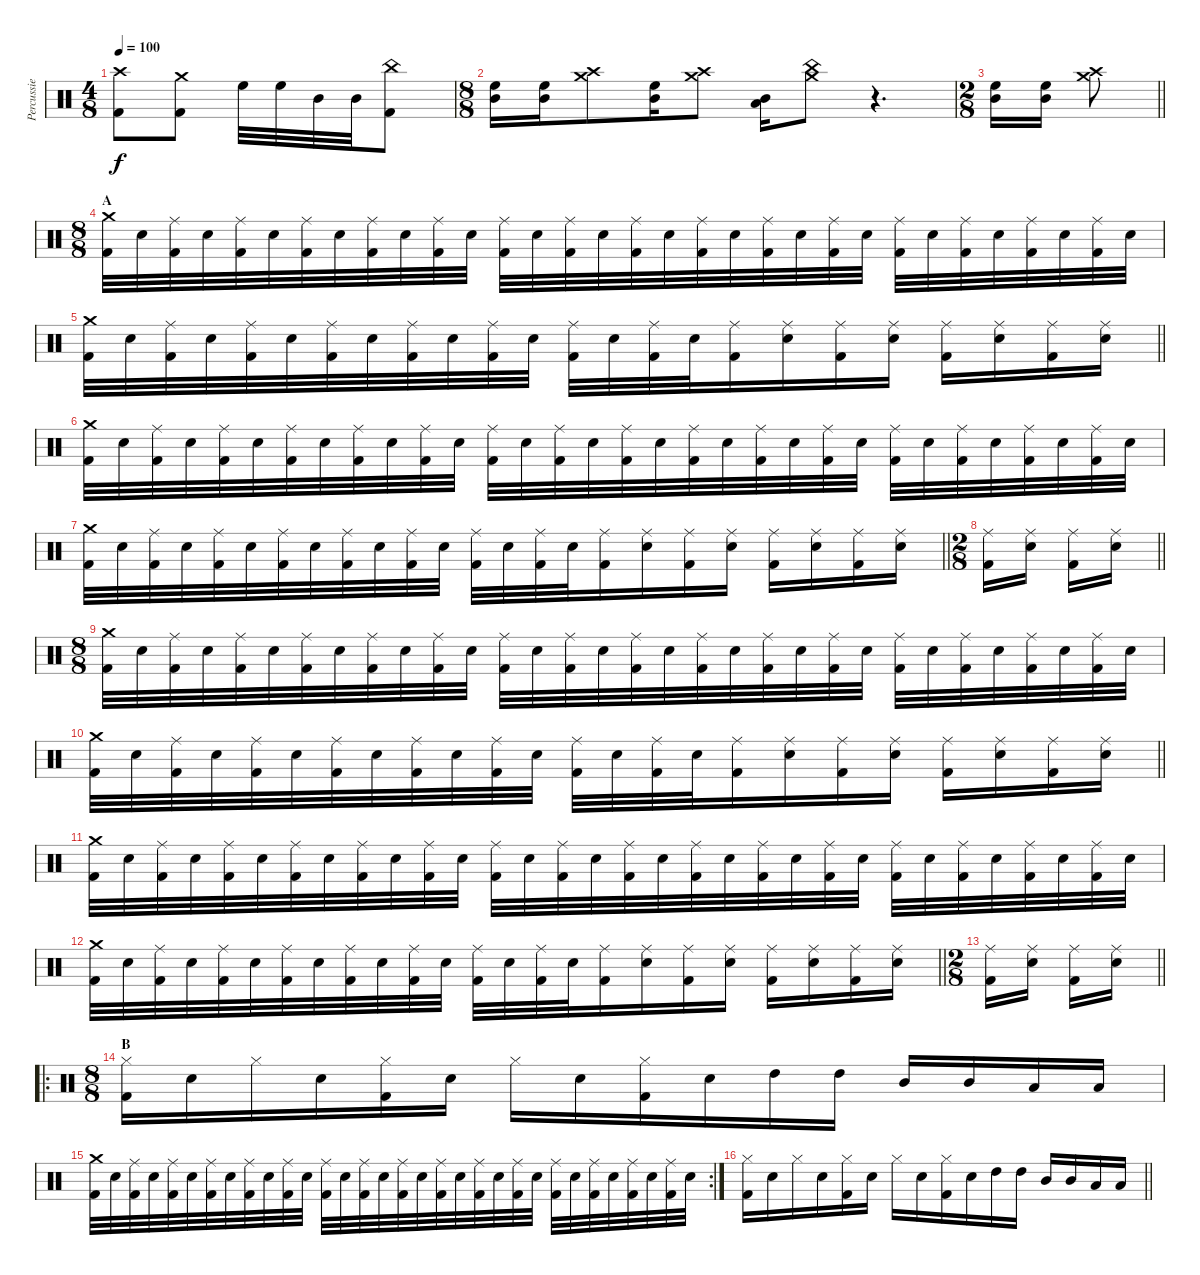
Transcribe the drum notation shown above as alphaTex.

\track ("Percussie" "Percussie") {instrument percussion}
\staff {score}
\articulation defaults
\ts (4 8)
\tempo 100
\clef neutral
\ks c
("Crash high (hit)" "Kick (hit) 2").8{dy f} ("Crash medium (hit)" "Kick (hit) 2").8 "High Floor Tom (hit)".32 "High Floor Tom (hit)".32 "Mid Tom (hit)".32 "Mid Tom (hit)".32 ("China (hit)" "Kick (hit) 2").8 |
\ts (8 8)
("Mid Tom (hit)" "High Floor Tom (hit)").16 ("Mid Tom (hit)" "High Floor Tom (hit)").16 ("Crash medium (hit)" "Crash high (hit)").8 ("Mid Tom (hit)" "High Floor Tom (hit)").16 ("Crash medium (hit)" "Crash high (hit)").8 ("Low Tom (hit)" "Mid Tom (hit)").16 ("Crash medium (hit)" "China (hit)").8 r.4{d} |
\ts (2 8)
\barLineRight lightlight
("Mid Tom (hit)" "High Floor Tom (hit)").16 ("Mid Tom (hit)" "High Floor Tom (hit)").16 ("Crash medium (hit)" "Crash high (hit)").8 |
\ts (8 8)
\section ("" "A")
("Crash medium (hit)" "Kick (hit) 2").32 "Electric Snare (hit)".32 ("Ride (middle)" "Kick (hit) 2").32 "Electric Snare (hit)".32 ("Ride (middle)" "Kick (hit) 2").32 "Electric Snare (hit)".32 ("Ride (middle)" "Kick (hit) 2").32 "Electric Snare (hit)".32 ("Ride (middle)" "Kick (hit) 2").32 "Electric Snare (hit)".32 ("Ride (middle)" "Kick (hit) 2").32 "Electric Snare (hit)".32 ("Ride (middle)" "Kick (hit) 2").32 "Electric Snare (hit)".32 ("Ride (middle)" "Kick (hit) 2").32 "Electric Snare (hit)".32 ("Ride (middle)" "Kick (hit) 2").32 "Electric Snare (hit)".32 ("Ride (middle)" "Kick (hit) 2").32 "Electric Snare (hit)".32 ("Ride (middle)" "Kick (hit) 2").32 "Electric Snare (hit)".32 ("Ride (middle)" "Kick (hit) 2").32 "Electric Snare (hit)".32 ("Ride (middle)" "Kick (hit) 2").32 "Electric Snare (hit)".32 ("Ride (middle)" "Kick (hit) 2").32 "Electric Snare (hit)".32 ("Ride (middle)" "Kick (hit) 2").32 "Electric Snare (hit)".32 ("Ride (middle)" "Kick (hit) 2").32 "Electric Snare (hit)".32 |
\barLineRight lightlight
("Crash medium (hit)" "Kick (hit) 2").32 "Electric Snare (hit)".32 ("Ride (middle)" "Kick (hit) 2").32 "Electric Snare (hit)".32 ("Ride (middle)" "Kick (hit) 2").32 "Electric Snare (hit)".32 ("Ride (middle)" "Kick (hit) 2").32 "Electric Snare (hit)".32 ("Ride (middle)" "Kick (hit) 2").32 "Electric Snare (hit)".32 ("Ride (middle)" "Kick (hit) 2").32 "Electric Snare (hit)".32 ("Ride (middle)" "Kick (hit) 2").32 "Electric Snare (hit)".32 ("Ride (middle)" "Kick (hit) 2").32 "Electric Snare (hit)".32 ("Ride (middle)" "Kick (hit) 2").16 ("Ride (middle)" "Electric Snare (hit)").16 ("Ride (middle)" "Kick (hit) 2").16 ("Ride (middle)" "Electric Snare (hit)").16 ("Ride (middle)" "Kick (hit) 2").16 ("Ride (middle)" "Electric Snare (hit)").16 ("Ride (middle)" "Kick (hit) 2").16 ("Ride (middle)" "Electric Snare (hit)").16 |
("Crash medium (hit)" "Kick (hit) 2").32 "Electric Snare (hit)".32 ("Ride (middle)" "Kick (hit) 2").32 "Electric Snare (hit)".32 ("Ride (middle)" "Kick (hit) 2").32 "Electric Snare (hit)".32 ("Ride (middle)" "Kick (hit) 2").32 "Electric Snare (hit)".32 ("Ride (middle)" "Kick (hit) 2").32 "Electric Snare (hit)".32 ("Ride (middle)" "Kick (hit) 2").32 "Electric Snare (hit)".32 ("Ride (middle)" "Kick (hit) 2").32 "Electric Snare (hit)".32 ("Ride (middle)" "Kick (hit) 2").32 "Electric Snare (hit)".32 ("Ride (middle)" "Kick (hit) 2").32 "Electric Snare (hit)".32 ("Ride (middle)" "Kick (hit) 2").32 "Electric Snare (hit)".32 ("Ride (middle)" "Kick (hit) 2").32 "Electric Snare (hit)".32 ("Ride (middle)" "Kick (hit) 2").32 "Electric Snare (hit)".32 ("Ride (middle)" "Kick (hit) 2").32 "Electric Snare (hit)".32 ("Ride (middle)" "Kick (hit) 2").32 "Electric Snare (hit)".32 ("Ride (middle)" "Kick (hit) 2").32 "Electric Snare (hit)".32 ("Ride (middle)" "Kick (hit) 2").32 "Electric Snare (hit)".32 |
\barLineRight lightlight
("Crash medium (hit)" "Kick (hit) 2").32 "Electric Snare (hit)".32 ("Ride (middle)" "Kick (hit) 2").32 "Electric Snare (hit)".32 ("Ride (middle)" "Kick (hit) 2").32 "Electric Snare (hit)".32 ("Ride (middle)" "Kick (hit) 2").32 "Electric Snare (hit)".32 ("Ride (middle)" "Kick (hit) 2").32 "Electric Snare (hit)".32 ("Ride (middle)" "Kick (hit) 2").32 "Electric Snare (hit)".32 ("Ride (middle)" "Kick (hit) 2").32 "Electric Snare (hit)".32 ("Ride (middle)" "Kick (hit) 2").32 "Electric Snare (hit)".32 ("Ride (middle)" "Kick (hit) 2").16 ("Ride (middle)" "Electric Snare (hit)").16 ("Ride (middle)" "Kick (hit) 2").16 ("Ride (middle)" "Electric Snare (hit)").16 ("Ride (middle)" "Kick (hit) 2").16 ("Ride (middle)" "Electric Snare (hit)").16 ("Ride (middle)" "Kick (hit) 2").16 ("Ride (middle)" "Electric Snare (hit)").16 |
\ts (2 8)
\barLineRight lightlight
("Ride (middle)" "Kick (hit) 2").16 ("Ride (middle)" "Electric Snare (hit)").16 ("Ride (middle)" "Kick (hit) 2").16 ("Ride (middle)" "Electric Snare (hit)").16 |
\ts (8 8)
("Crash medium (hit)" "Kick (hit) 2").32 "Electric Snare (hit)".32 ("Ride (middle)" "Kick (hit) 2").32 "Electric Snare (hit)".32 ("Ride (middle)" "Kick (hit) 2").32 "Electric Snare (hit)".32 ("Ride (middle)" "Kick (hit) 2").32 "Electric Snare (hit)".32 ("Ride (middle)" "Kick (hit) 2").32 "Electric Snare (hit)".32 ("Ride (middle)" "Kick (hit) 2").32 "Electric Snare (hit)".32 ("Ride (middle)" "Kick (hit) 2").32 "Electric Snare (hit)".32 ("Ride (middle)" "Kick (hit) 2").32 "Electric Snare (hit)".32 ("Ride (middle)" "Kick (hit) 2").32 "Electric Snare (hit)".32 ("Ride (middle)" "Kick (hit) 2").32 "Electric Snare (hit)".32 ("Ride (middle)" "Kick (hit) 2").32 "Electric Snare (hit)".32 ("Ride (middle)" "Kick (hit) 2").32 "Electric Snare (hit)".32 ("Ride (middle)" "Kick (hit) 2").32 "Electric Snare (hit)".32 ("Ride (middle)" "Kick (hit) 2").32 "Electric Snare (hit)".32 ("Ride (middle)" "Kick (hit) 2").32 "Electric Snare (hit)".32 ("Ride (middle)" "Kick (hit) 2").32 "Electric Snare (hit)".32 |
\barLineRight lightlight
("Crash medium (hit)" "Kick (hit) 2").32 "Electric Snare (hit)".32 ("Ride (middle)" "Kick (hit) 2").32 "Electric Snare (hit)".32 ("Ride (middle)" "Kick (hit) 2").32 "Electric Snare (hit)".32 ("Ride (middle)" "Kick (hit) 2").32 "Electric Snare (hit)".32 ("Ride (middle)" "Kick (hit) 2").32 "Electric Snare (hit)".32 ("Ride (middle)" "Kick (hit) 2").32 "Electric Snare (hit)".32 ("Ride (middle)" "Kick (hit) 2").32 "Electric Snare (hit)".32 ("Ride (middle)" "Kick (hit) 2").32 "Electric Snare (hit)".32 ("Ride (middle)" "Kick (hit) 2").16 ("Ride (middle)" "Electric Snare (hit)").16 ("Ride (middle)" "Kick (hit) 2").16 ("Ride (middle)" "Electric Snare (hit)").16 ("Ride (middle)" "Kick (hit) 2").16 ("Ride (middle)" "Electric Snare (hit)").16 ("Ride (middle)" "Kick (hit) 2").16 ("Ride (middle)" "Electric Snare (hit)").16 |
("Crash medium (hit)" "Kick (hit) 2").32 "Electric Snare (hit)".32 ("Ride (middle)" "Kick (hit) 2").32 "Electric Snare (hit)".32 ("Ride (middle)" "Kick (hit) 2").32 "Electric Snare (hit)".32 ("Ride (middle)" "Kick (hit) 2").32 "Electric Snare (hit)".32 ("Ride (middle)" "Kick (hit) 2").32 "Electric Snare (hit)".32 ("Ride (middle)" "Kick (hit) 2").32 "Electric Snare (hit)".32 ("Ride (middle)" "Kick (hit) 2").32 "Electric Snare (hit)".32 ("Ride (middle)" "Kick (hit) 2").32 "Electric Snare (hit)".32 ("Ride (middle)" "Kick (hit) 2").32 "Electric Snare (hit)".32 ("Ride (middle)" "Kick (hit) 2").32 "Electric Snare (hit)".32 ("Ride (middle)" "Kick (hit) 2").32 "Electric Snare (hit)".32 ("Ride (middle)" "Kick (hit) 2").32 "Electric Snare (hit)".32 ("Ride (middle)" "Kick (hit) 2").32 "Electric Snare (hit)".32 ("Ride (middle)" "Kick (hit) 2").32 "Electric Snare (hit)".32 ("Ride (middle)" "Kick (hit) 2").32 "Electric Snare (hit)".32 ("Ride (middle)" "Kick (hit) 2").32 "Electric Snare (hit)".32 |
\barLineRight lightlight
("Crash medium (hit)" "Kick (hit) 2").32 "Electric Snare (hit)".32 ("Ride (middle)" "Kick (hit) 2").32 "Electric Snare (hit)".32 ("Ride (middle)" "Kick (hit) 2").32 "Electric Snare (hit)".32 ("Ride (middle)" "Kick (hit) 2").32 "Electric Snare (hit)".32 ("Ride (middle)" "Kick (hit) 2").32 "Electric Snare (hit)".32 ("Ride (middle)" "Kick (hit) 2").32 "Electric Snare (hit)".32 ("Ride (middle)" "Kick (hit) 2").32 "Electric Snare (hit)".32 ("Ride (middle)" "Kick (hit) 2").32 "Electric Snare (hit)".32 ("Ride (middle)" "Kick (hit) 2").16 ("Ride (middle)" "Electric Snare (hit)").16 ("Ride (middle)" "Kick (hit) 2").16 ("Ride (middle)" "Electric Snare (hit)").16 ("Ride (middle)" "Kick (hit) 2").16 ("Ride (middle)" "Electric Snare (hit)").16 ("Ride (middle)" "Kick (hit) 2").16 ("Ride (middle)" "Electric Snare (hit)").16 |
\ts (2 8)
\barLineRight lightlight
("Ride (middle)" "Kick (hit) 2").16 ("Ride (middle)" "Electric Snare (hit)").16 ("Ride (middle)" "Kick (hit) 2").16 ("Ride (middle)" "Electric Snare (hit)").16 |
\ro
\ts (8 8)
\section ("" "B")
("Hi-Hat (closed)" "Kick (hit) 2").16 "Electric Snare (hit)".16 "Hi-Hat (closed)".16 "Electric Snare (hit)".16 ("Hi-Hat (closed)" "Kick (hit) 2").16 "Electric Snare (hit)".16 "Hi-Hat (closed)".16 "Electric Snare (hit)".16 ("Hi-Hat (closed)" "Kick (hit) 2").16 "Electric Snare (hit)".16 "High Tom (hit)".16 "High Tom (hit)".16 "Mid Tom (hit)".16 "Mid Tom (hit)".16 "Low Tom (hit)".16 "Low Tom (hit)".16 |
\rc 2
("Crash medium (hit)" "Kick (hit) 2").32 "Electric Snare (hit)".32 ("Ride (middle)" "Kick (hit) 2").32 "Electric Snare (hit)".32 ("Ride (middle)" "Kick (hit) 2").32 "Electric Snare (hit)".32 ("Ride (middle)" "Kick (hit) 2").32 "Electric Snare (hit)".32 ("Ride (middle)" "Kick (hit) 2").32 "Electric Snare (hit)".32 ("Ride (middle)" "Kick (hit) 2").32 "Electric Snare (hit)".32 ("Ride (middle)" "Kick (hit) 2").32 "Electric Snare (hit)".32 ("Ride (middle)" "Kick (hit) 2").32 "Electric Snare (hit)".32 ("Ride (middle)" "Kick (hit) 2").32 "Electric Snare (hit)".32 ("Ride (middle)" "Kick (hit) 2").32 "Electric Snare (hit)".32 ("Ride (middle)" "Kick (hit) 2").32 "Electric Snare (hit)".32 ("Ride (middle)" "Kick (hit) 2").32 "Electric Snare (hit)".32 ("Ride (middle)" "Kick (hit) 2").32 "Electric Snare (hit)".32 ("Ride (middle)" "Kick (hit) 2").32 "Electric Snare (hit)".32 ("Ride (middle)" "Kick (hit) 2").32 "Electric Snare (hit)".32 ("Ride (middle)" "Kick (hit) 2").32 "Electric Snare (hit)".32 |
\barLineRight lightlight
("Hi-Hat (closed)" "Kick (hit) 2").16 "Electric Snare (hit)".16 "Hi-Hat (closed)".16 "Electric Snare (hit)".16 ("Hi-Hat (closed)" "Kick (hit) 2").16 "Electric Snare (hit)".16 "Hi-Hat (closed)".16 "Electric Snare (hit)".16 ("Hi-Hat (closed)" "Kick (hit) 2").16 "Electric Snare (hit)".16 "High Tom (hit)".16 "High Tom (hit)".16 "Mid Tom (hit)".16 "Mid Tom (hit)".16 "Low Tom (hit)".16 "Low Tom (hit)".16
